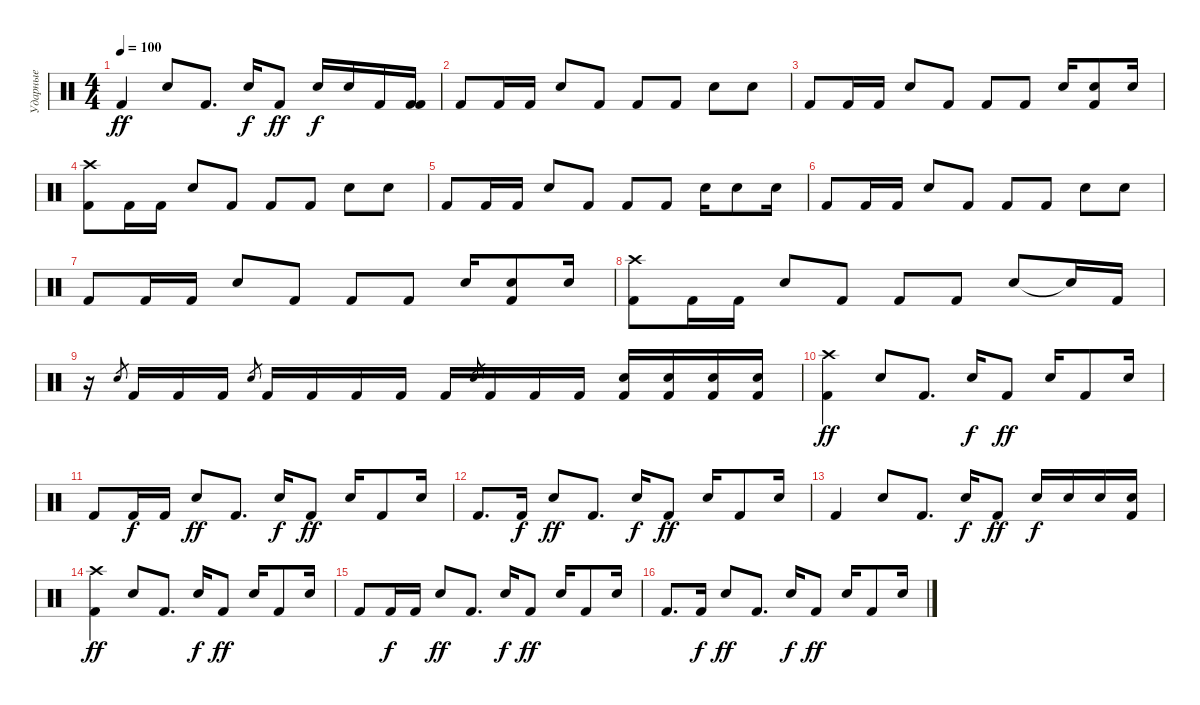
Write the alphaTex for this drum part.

\track ("Ударные" "Ударные") {instrument percussion}
\staff {score}
\articulation defaults
\ts (4 4)
\tempo 100
\clef neutral
\ks c "Kick (hit) 2".4{dy ff} "Snare (hit) 2".8 "Kick (hit) 2".8{d} "Snare (hit) 2".16{dy f} "Kick (hit) 2".8{dy ff} "Electric Snare (hit)".16{dy f} "Electric Snare (hit)".16 "Kick (hit) 2".16
("Kick (hit) 2" "Kick (hit) 2").16 |
"Kick (hit) 2".8 "Kick (hit) 2".16 "Kick (hit) 2".16 "Electric Snare (hit)".8 "Kick (hit) 2".8 "Kick (hit) 2".8 "Kick (hit) 2".8 "Electric Snare (hit)".8 "Electric Snare (hit)".8 |
"Kick (hit) 2".8 "Kick (hit) 2".16 "Kick (hit) 2".16 "Electric Snare (hit)".8 "Kick (hit) 2".8 "Kick (hit) 2".8 "Kick (hit) 2".8 "Electric Snare (hit)".16 ("Electric Snare (hit)" "Kick (hit) 2").8 "Snare (hit) 2".16 |
("Kick (hit) 2" "Crash high (hit)").8 "Kick (hit) 2".16 "Kick (hit) 2".16 "Electric Snare (hit)".8 "Kick (hit) 2".8 "Kick (hit) 2".8 "Kick (hit) 2".8 "Electric Snare (hit)".8 "Electric Snare (hit)".8 |
"Kick (hit) 2".8 "Kick (hit) 2".16 "Kick (hit) 2".16 "Electric Snare (hit)".8 "Kick (hit) 2".8 "Kick (hit) 2".8 "Kick (hit) 2".8 "Electric Snare (hit)".16 "Electric Snare (hit)".8 "Snare (hit) 2".16 |
"Kick (hit) 2".8 "Kick (hit) 2".16 "Kick (hit) 2".16 "Electric Snare (hit)".8 "Kick (hit) 2".8 "Kick (hit) 2".8 "Kick (hit) 2".8 "Electric Snare (hit)".8 "Electric Snare (hit)".8 |
"Kick (hit) 2".8 "Kick (hit) 2".16 "Kick (hit) 2".16 "Electric Snare (hit)".8 "Kick (hit) 2".8 "Kick (hit) 2".8 "Kick (hit) 2".8 "Electric Snare (hit)".16 ("Electric Snare (hit)" "Kick (hit) 2").8 "Snare (hit) 2".16 |
("Kick (hit) 2" "Crash high (hit)").8 "Kick (hit) 2".16 "Kick (hit) 2".16 "Electric Snare (hit)".8 "Kick (hit) 2".8 "Kick (hit) 2".8 "Kick (hit) 2".8 "Electric Snare (hit)".8 "Electric Snare (hit)"{t}.16 "Kick (hit) 2".16 |
r.16 "Electric Snare (hit)".8{gr} "Kick (hit) 2".16 "Kick (hit) 2".16 "Kick (hit) 2".16 "Electric Snare (hit)".8{gr} "Kick (hit) 2".16 "Kick (hit) 2".16 "Kick (hit) 2".16 "Kick (hit) 2".16 "Kick (hit) 2".16 "Electric Snare (hit)".8{gr} "Kick (hit) 2".16 "Kick (hit) 2".16 "Kick (hit) 2".16 ("Kick (hit) 2" "Snare (hit) 2").16 ("Kick (hit) 2" "Snare (hit) 2").16 ("Kick (hit) 2" "Snare (hit) 2").16 ("Kick (hit) 2" "Snare (hit) 2").16 |
("Crash high (hit)" "Kick (hit) 2").4{dy ff} "Snare (hit) 2".8 "Kick (hit) 2".8{d} "Snare (hit) 2".16{dy f} "Kick (hit) 2".8{dy ff} "Snare (hit) 2".16 "Kick (hit) 2".8 "Snare (hit) 2".16 |
"Kick (hit) 2".8 "Kick (hit) 2".16{dy f} "Kick (hit) 2".16 "Snare (hit) 2".8{dy ff} "Kick (hit) 2".8{d} "Snare (hit) 2".16{dy f} "Kick (hit) 2".8{dy ff} "Snare (hit) 2".16 "Kick (hit) 2".8 "Snare (hit) 2".16 |
"Kick (hit) 2".8{d} "Kick (hit) 2".16{dy f} "Snare (hit) 2".8{dy ff} "Kick (hit) 2".8{d} "Snare (hit) 2".16{dy f} "Kick (hit) 2".8{dy ff} "Snare (hit) 2".16 "Kick (hit) 2".8 "Snare (hit) 2".16 |
"Kick (hit) 2".4 "Snare (hit) 2".8 "Kick (hit) 2".8{d} "Snare (hit) 2".16{dy f} "Kick (hit) 2".8{dy ff} "Electric Snare (hit)".16{dy f} "Electric Snare (hit)".16 "Snare (hit) 2".16 ("Snare (hit) 2" "Kick (hit) 2").16 |
("Crash high (hit)" "Kick (hit) 2").4{dy ff} "Snare (hit) 2".8 "Kick (hit) 2".8{d} "Snare (hit) 2".16{dy f} "Kick (hit) 2".8{dy ff} "Snare (hit) 2".16 "Kick (hit) 2".8 "Snare (hit) 2".16 |
"Kick (hit) 2".8 "Kick (hit) 2".16{dy f} "Kick (hit) 2".16 "Snare (hit) 2".8{dy ff} "Kick (hit) 2".8{d} "Snare (hit) 2".16{dy f} "Kick (hit) 2".8{dy ff} "Snare (hit) 2".16 "Kick (hit) 2".8 "Snare (hit) 2".16 |
"Kick (hit) 2".8{d} "Kick (hit) 2".16{dy f} "Snare (hit) 2".8{dy ff} "Kick (hit) 2".8{d} "Snare (hit) 2".16{dy f} "Kick (hit) 2".8{dy ff} "Snare (hit) 2".16 "Kick (hit) 2".8 "Snare (hit) 2".16
